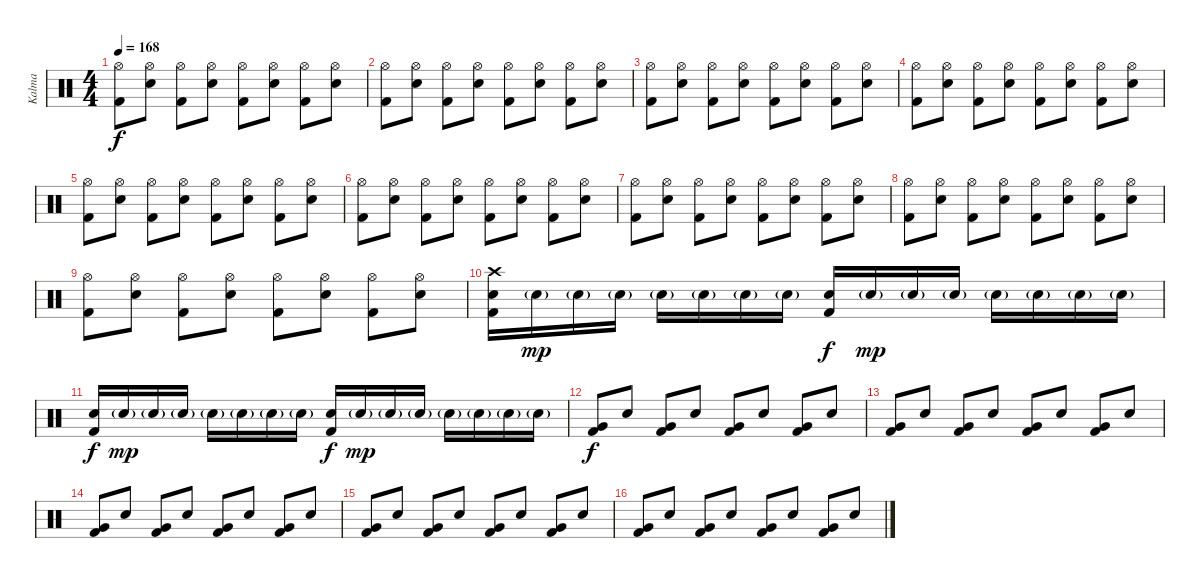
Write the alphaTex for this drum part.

\track ("Kalma" "Kalma") {instrument percussion}
\staff {score}
\articulation defaults
\ts (4 4)
\tempo 168
\clef neutral
\ks c
("Hi-Hat (open)" "Kick (hit) 2").8{dy f} ("Hi-Hat (open)" "Snare (hit) 2").8 ("Hi-Hat (open)" "Kick (hit) 2").8 ("Hi-Hat (open)" "Snare (hit) 2").8 ("Hi-Hat (open)" "Kick (hit) 2").8 ("Hi-Hat (open)" "Snare (hit) 2").8 ("Hi-Hat (open)" "Kick (hit) 2").8 ("Hi-Hat (open)" "Snare (hit) 2").8 |
("Hi-Hat (open)" "Kick (hit) 2").8 ("Hi-Hat (open)" "Snare (hit) 2").8 ("Hi-Hat (open)" "Kick (hit) 2").8 ("Hi-Hat (open)" "Snare (hit) 2").8 ("Hi-Hat (open)" "Kick (hit) 2").8 ("Hi-Hat (open)" "Snare (hit) 2").8 ("Hi-Hat (open)" "Kick (hit) 2").8 ("Hi-Hat (open)" "Snare (hit) 2").8 |
("Hi-Hat (open)" "Kick (hit) 2").8 ("Hi-Hat (open)" "Snare (hit) 2").8 ("Hi-Hat (open)" "Kick (hit) 2").8 ("Hi-Hat (open)" "Snare (hit) 2").8 ("Hi-Hat (open)" "Kick (hit) 2").8 ("Hi-Hat (open)" "Snare (hit) 2").8 ("Hi-Hat (open)" "Kick (hit) 2").8 ("Hi-Hat (open)" "Snare (hit) 2").8 |
("Hi-Hat (open)" "Kick (hit) 2").8 ("Hi-Hat (open)" "Snare (hit) 2").8 ("Hi-Hat (open)" "Kick (hit) 2").8 ("Hi-Hat (open)" "Snare (hit) 2").8 ("Hi-Hat (open)" "Kick (hit) 2").8 ("Hi-Hat (open)" "Snare (hit) 2").8 ("Hi-Hat (open)" "Kick (hit) 2").8 ("Hi-Hat (open)" "Snare (hit) 2").8 |
("Hi-Hat (open)" "Kick (hit) 2").8 ("Hi-Hat (open)" "Snare (hit) 2").8 ("Hi-Hat (open)" "Kick (hit) 2").8 ("Hi-Hat (open)" "Snare (hit) 2").8 ("Hi-Hat (open)" "Kick (hit) 2").8 ("Hi-Hat (open)" "Snare (hit) 2").8 ("Hi-Hat (open)" "Kick (hit) 2").8 ("Hi-Hat (open)" "Snare (hit) 2").8 |
("Hi-Hat (open)" "Kick (hit) 2").8 ("Hi-Hat (open)" "Snare (hit) 2").8 ("Hi-Hat (open)" "Kick (hit) 2").8 ("Hi-Hat (open)" "Snare (hit) 2").8 ("Hi-Hat (open)" "Kick (hit) 2").8 ("Hi-Hat (open)" "Snare (hit) 2").8 ("Hi-Hat (open)" "Kick (hit) 2").8 ("Hi-Hat (open)" "Snare (hit) 2").8 |
("Hi-Hat (open)" "Kick (hit) 2").8 ("Hi-Hat (open)" "Snare (hit) 2").8 ("Hi-Hat (open)" "Kick (hit) 2").8 ("Hi-Hat (open)" "Snare (hit) 2").8 ("Hi-Hat (open)" "Kick (hit) 2").8 ("Hi-Hat (open)" "Snare (hit) 2").8 ("Hi-Hat (open)" "Kick (hit) 2").8 ("Hi-Hat (open)" "Snare (hit) 2").8 |
("Hi-Hat (open)" "Kick (hit) 2").8 ("Hi-Hat (open)" "Snare (hit) 2").8 ("Hi-Hat (open)" "Kick (hit) 2").8 ("Hi-Hat (open)" "Snare (hit) 2").8 ("Hi-Hat (open)" "Kick (hit) 2").8 ("Hi-Hat (open)" "Snare (hit) 2").8 ("Hi-Hat (open)" "Kick (hit) 2").8 ("Hi-Hat (open)" "Snare (hit) 2").8 |
("Hi-Hat (open)" "Kick (hit) 2").8 ("Hi-Hat (open)" "Snare (hit) 2").8 ("Hi-Hat (open)" "Kick (hit) 2").8 ("Hi-Hat (open)" "Snare (hit) 2").8 ("Hi-Hat (open)" "Kick (hit) 2").8 ("Hi-Hat (open)" "Snare (hit) 2").8 ("Hi-Hat (open)" "Kick (hit) 2").8 ("Hi-Hat (open)" "Snare (hit) 2").8 |
("Crash high (hit)" "Snare (hit) 2" "Kick (hit) 2").16 "Snare (hit) 2"{g}.16{dy mp volume 9} "Snare (hit) 2"{g}.16 "Snare (hit) 2"{g}.16 "Snare (hit) 2"{g}.16 "Snare (hit) 2"{g}.16 "Snare (hit) 2"{g}.16 "Snare (hit) 2"{g}.16 ("Snare (hit) 2" "Kick (hit) 2").16{dy f} "Snare (hit) 2"{g}.16{dy mp} "Snare (hit) 2"{g}.16 "Snare (hit) 2"{g}.16 "Snare (hit) 2"{g}.16 "Snare (hit) 2"{g}.16 "Snare (hit) 2"{g}.16 "Snare (hit) 2"{g}.16 |
("Snare (hit) 2" "Kick (hit) 2").16{dy f} "Snare (hit) 2"{g}.16{dy mp volume 9} "Snare (hit) 2"{g}.16 "Snare (hit) 2"{g}.16 "Snare (hit) 2"{g}.16 "Snare (hit) 2"{g}.16 "Snare (hit) 2"{g}.16 "Snare (hit) 2"{g}.16 ("Snare (hit) 2" "Kick (hit) 2").16{dy f} "Snare (hit) 2"{g}.16{dy mp} "Snare (hit) 2"{g}.16 "Snare (hit) 2"{g}.16 "Snare (hit) 2"{g}.16 "Snare (hit) 2"{g}.16 "Snare (hit) 2"{g}.16 "Snare (hit) 2"{g}.16 |
("Very Low Tom (hit)" "Kick (hit) 2").8{dy f volume 13} "Snare (hit) 2".8 ("Very Low Tom (hit)" "Kick (hit) 2").8 "Snare (hit) 2".8 ("Very Low Tom (hit)" "Kick (hit) 2").8 "Snare (hit) 2".8 ("Very Low Tom (hit)" "Kick (hit) 2").8 "Snare (hit) 2".8 |
("Very Low Tom (hit)" "Kick (hit) 2").8 "Snare (hit) 2".8 ("Very Low Tom (hit)" "Kick (hit) 2").8 "Snare (hit) 2".8 ("Very Low Tom (hit)" "Kick (hit) 2").8 "Snare (hit) 2".8 ("Very Low Tom (hit)" "Kick (hit) 2").8 "Snare (hit) 2".8 |
("Very Low Tom (hit)" "Kick (hit) 2").8 "Snare (hit) 2".8 ("Very Low Tom (hit)" "Kick (hit) 2").8 "Snare (hit) 2".8 ("Very Low Tom (hit)" "Kick (hit) 2").8 "Snare (hit) 2".8 ("Very Low Tom (hit)" "Kick (hit) 2").8 "Snare (hit) 2".8 |
("Very Low Tom (hit)" "Kick (hit) 2").8 "Snare (hit) 2".8 ("Very Low Tom (hit)" "Kick (hit) 2").8 "Snare (hit) 2".8 ("Very Low Tom (hit)" "Kick (hit) 2").8 "Snare (hit) 2".8 ("Very Low Tom (hit)" "Kick (hit) 2").8 "Snare (hit) 2".8 |
("Very Low Tom (hit)" "Kick (hit) 2").8 "Snare (hit) 2".8 ("Very Low Tom (hit)" "Kick (hit) 2").8 "Snare (hit) 2".8 ("Very Low Tom (hit)" "Kick (hit) 2").8 "Snare (hit) 2".8 ("Very Low Tom (hit)" "Kick (hit) 2").8 "Snare (hit) 2".8
